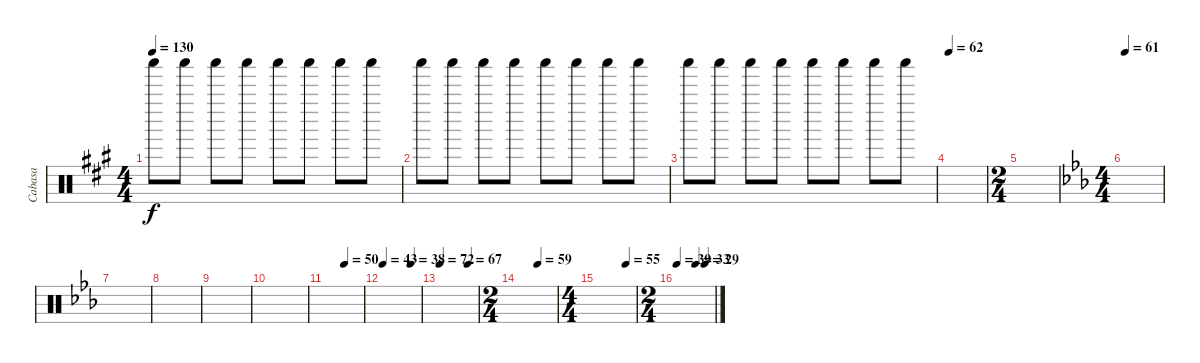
\track ("Cabasa" "Cabasa") {instrument percussion}
\staff {score}
\articulation defaults
\ts (4 4)
\tempo 130
\clef neutral
\ks a "Shaker (hit)".8{dy f} "Shaker (hit)".8 "Shaker (hit)".8 "Shaker (hit)".8 "Shaker (hit)".8 "Shaker (hit)".8 "Shaker (hit)".8 "Shaker (hit)".8
|
"Shaker (hit)".8 "Shaker (hit)".8 "Shaker (hit)".8 "Shaker (hit)".8 "Shaker (hit)".8 "Shaker (hit)".8 "Shaker (hit)".8 "Shaker (hit)".8 |
"Shaker (hit)".8 "Shaker (hit)".8 "Shaker (hit)".8 "Shaker (hit)".8 "Shaker (hit)".8 "Shaker (hit)".8 "Shaker (hit)".8 "Shaker (hit)".8 |
\tempo 62
|
\ts (2 4)
|
\ts (4 4)
\tempo 61
\ks eb
|
|
|
|
|
\tempo (50 0.5)
|
\tempo 43
\tempo (38 0.75)
|
\tempo 72
\tempo (67 0.75)
|
\ts (2 4)
\tempo (59 0.5)
|
\ts (4 4)
\tempo (55 0.75)
|
\ts (2 4)
\tempo 39
\tempo (33 0.5)
\tempo (29 0.75)
